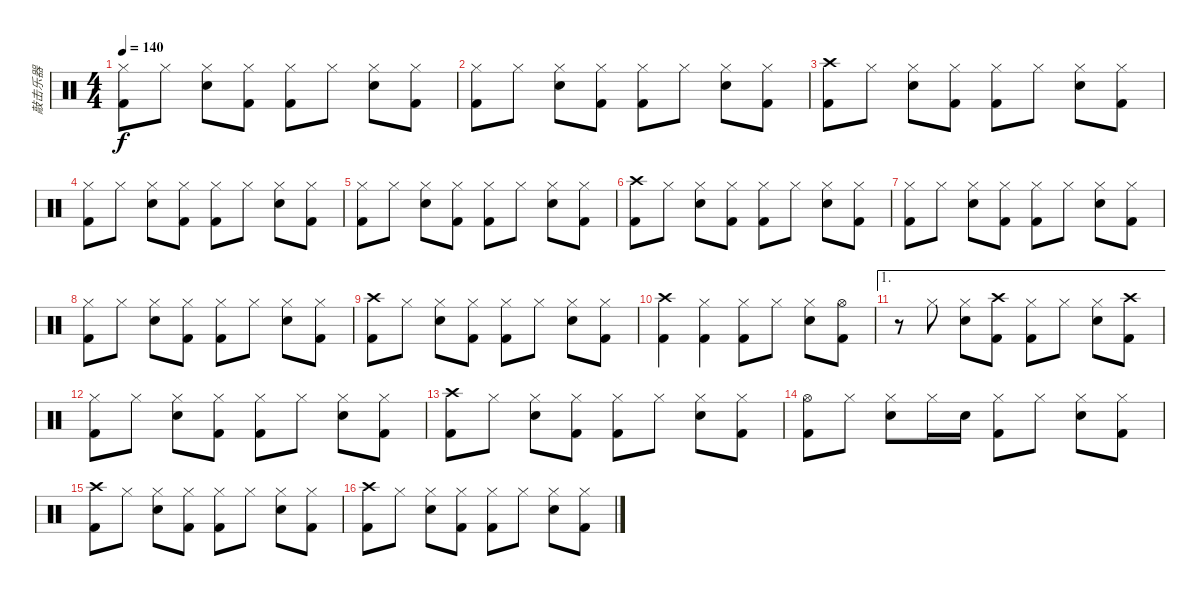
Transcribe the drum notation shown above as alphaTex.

\track ("敲击乐器" "敲击乐器") {instrument percussion}
\staff {score}
\articulation defaults
\ts (4 4)
\tempo 140
\clef neutral
\ks c
("Hi-Hat (closed)" "Kick (hit) 2").8{dy f} "Hi-Hat (closed)".8 ("Hi-Hat (closed)" "Snare (hit) 2").8 ("Hi-Hat (closed)" "Kick (hit) 2").8 ("Hi-Hat (closed)" "Kick (hit) 2").8 "Hi-Hat (closed)".8 ("Hi-Hat (closed)" "Snare (hit) 2").8 ("Hi-Hat (closed)" "Kick (hit) 2").8 |
("Hi-Hat (closed)" "Kick (hit) 2").8 "Hi-Hat (closed)".8 ("Hi-Hat (closed)" "Snare (hit) 2").8 ("Hi-Hat (closed)" "Kick (hit) 2").8 ("Hi-Hat (closed)" "Kick (hit) 2").8 "Hi-Hat (closed)".8 ("Hi-Hat (closed)" "Snare (hit) 2").8 ("Hi-Hat (closed)" "Kick (hit) 2").8 |
("Crash high (hit)" "Kick (hit) 2").8 "Hi-Hat (closed)".8 ("Hi-Hat (closed)" "Snare (hit) 2").8 ("Hi-Hat (closed)" "Kick (hit) 2").8 ("Hi-Hat (closed)" "Kick (hit) 2").8 "Hi-Hat (closed)".8 ("Hi-Hat (closed)" "Snare (hit) 2").8 ("Hi-Hat (closed)" "Kick (hit) 2").8 |
("Hi-Hat (closed)" "Kick (hit) 2").8 "Hi-Hat (closed)".8 ("Hi-Hat (closed)" "Snare (hit) 2").8 ("Hi-Hat (closed)" "Kick (hit) 2").8 ("Hi-Hat (closed)" "Kick (hit) 2").8 "Hi-Hat (closed)".8 ("Hi-Hat (closed)" "Snare (hit) 2").8 ("Hi-Hat (closed)" "Kick (hit) 2").8 |
("Hi-Hat (closed)" "Kick (hit) 2").8 "Hi-Hat (closed)".8 ("Hi-Hat (closed)" "Snare (hit) 2").8 ("Hi-Hat (closed)" "Kick (hit) 2").8 ("Hi-Hat (closed)" "Kick (hit) 2").8 "Hi-Hat (closed)".8 ("Hi-Hat (closed)" "Snare (hit) 2").8 ("Hi-Hat (closed)" "Kick (hit) 2").8 |
("Crash high (hit)" "Kick (hit) 2").8 "Hi-Hat (closed)".8 ("Hi-Hat (closed)" "Snare (hit) 2").8 ("Hi-Hat (closed)" "Kick (hit) 2").8 ("Hi-Hat (closed)" "Kick (hit) 2").8 "Hi-Hat (closed)".8 ("Hi-Hat (closed)" "Snare (hit) 2").8 ("Hi-Hat (closed)" "Kick (hit) 2").8 |
("Hi-Hat (closed)" "Kick (hit) 2").8 "Hi-Hat (closed)".8 ("Hi-Hat (closed)" "Snare (hit) 2").8 ("Hi-Hat (closed)" "Kick (hit) 2").8 ("Hi-Hat (closed)" "Kick (hit) 2").8 "Hi-Hat (closed)".8 ("Hi-Hat (closed)" "Snare (hit) 2").8 ("Hi-Hat (closed)" "Kick (hit) 2").8 |
("Hi-Hat (closed)" "Kick (hit) 2").8 "Hi-Hat (closed)".8 ("Hi-Hat (closed)" "Snare (hit) 2").8 ("Hi-Hat (closed)" "Kick (hit) 2").8 ("Hi-Hat (closed)" "Kick (hit) 2").8 "Hi-Hat (closed)".8 ("Hi-Hat (closed)" "Snare (hit) 2").8 ("Hi-Hat (closed)" "Kick (hit) 2").8 |
("Crash high (hit)" "Kick (hit) 2").8 "Hi-Hat (closed)".8 ("Hi-Hat (closed)" "Snare (hit) 2").8 ("Hi-Hat (closed)" "Kick (hit) 2").8 ("Hi-Hat (closed)" "Kick (hit) 2").8 "Hi-Hat (closed)".8 ("Hi-Hat (closed)" "Snare (hit) 2").8 ("Hi-Hat (closed)" "Kick (hit) 2").8 |
("Crash high (hit)" "Kick (hit) 2").4 ("Hi-Hat (closed)" "Kick (hit) 2").4 ("Hi-Hat (closed)" "Kick (hit) 2").8 "Hi-Hat (closed)".8 ("Hi-Hat (closed)" "Snare (hit) 2").8 ("Hi-Hat (open)" "Kick (hit) 2").8 |
\ae 1
r.8 "Hi-Hat (closed)".8 ("Hi-Hat (closed)" "Snare (hit) 2").8 ("Crash high (hit)" "Kick (hit) 2").8 ("Hi-Hat (closed)" "Kick (hit) 2").8 "Hi-Hat (closed)".8 ("Hi-Hat (closed)" "Snare (hit) 2").8 ("Crash high (hit)" "Kick (hit) 2").8 |
("Hi-Hat (closed)" "Kick (hit) 2").8 "Hi-Hat (closed)".8 ("Hi-Hat (closed)" "Snare (hit) 2").8 ("Hi-Hat (closed)" "Kick (hit) 2").8 ("Hi-Hat (closed)" "Kick (hit) 2").8 "Hi-Hat (closed)".8 ("Hi-Hat (closed)" "Snare (hit) 2").8 ("Hi-Hat (closed)" "Kick (hit) 2").8 |
("Crash high (hit)" "Kick (hit) 2").8 "Hi-Hat (closed)".8 ("Hi-Hat (closed)" "Snare (hit) 2").8 ("Hi-Hat (closed)" "Kick (hit) 2").8 ("Hi-Hat (closed)" "Kick (hit) 2").8 "Hi-Hat (closed)".8 ("Hi-Hat (closed)" "Snare (hit) 2").8 ("Hi-Hat (closed)" "Kick (hit) 2").8 |
("Hi-Hat (open)" "Kick (hit) 2").8 "Hi-Hat (closed)".8 ("Hi-Hat (closed)" "Snare (hit) 2").8 "Hi-Hat (closed)".16 "Snare (hit) 2".16 ("Hi-Hat (closed)" "Kick (hit) 2").8 "Hi-Hat (closed)".8 ("Hi-Hat (closed)" "Snare (hit) 2").8 ("Hi-Hat (closed)" "Kick (hit) 2").8 |
("Crash high (hit)" "Kick (hit) 2").8 "Hi-Hat (closed)".8 ("Hi-Hat (closed)" "Snare (hit) 2").8 ("Hi-Hat (closed)" "Kick (hit) 2").8 ("Hi-Hat (closed)" "Kick (hit) 2").8 "Hi-Hat (closed)".8 ("Hi-Hat (closed)" "Snare (hit) 2").8 ("Hi-Hat (closed)" "Kick (hit) 2").8 |
("Crash high (hit)" "Kick (hit) 2").8 "Hi-Hat (closed)".8 ("Hi-Hat (closed)" "Snare (hit) 2").8 ("Hi-Hat (closed)" "Kick (hit) 2").8 ("Hi-Hat (closed)" "Kick (hit) 2").8 "Hi-Hat (closed)".8 ("Hi-Hat (closed)" "Snare (hit) 2").8 ("Hi-Hat (closed)" "Kick (hit) 2").8
